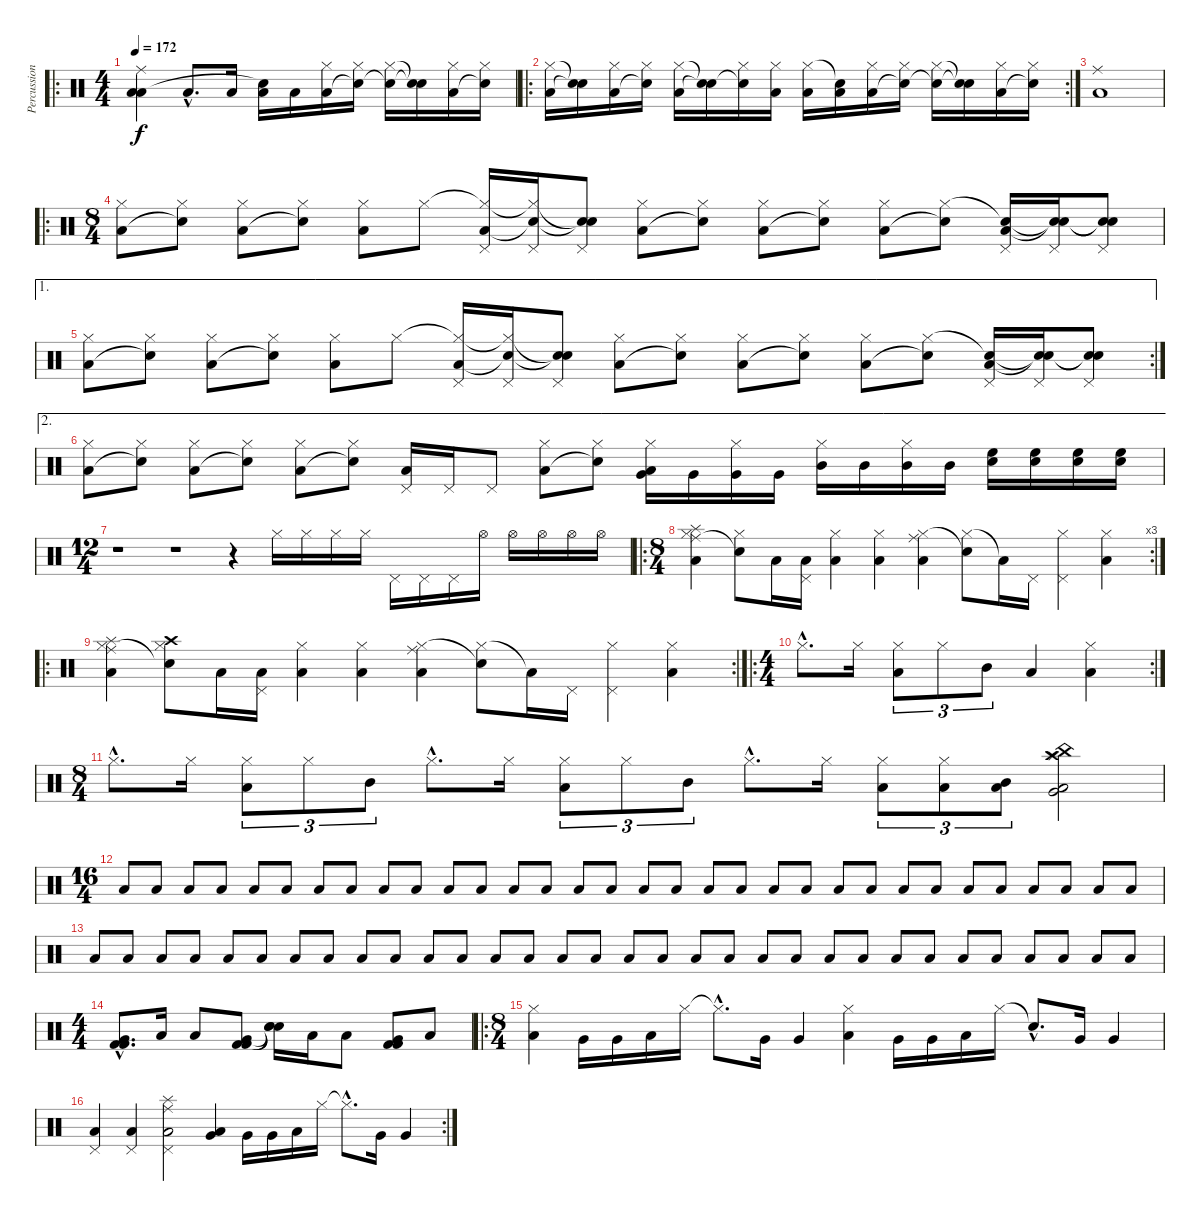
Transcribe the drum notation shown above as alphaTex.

\track ("Percussion" "Percussion") {instrument percussion}
\staff {score}
\articulation defaults
\ro
\ts (4 4)
\tempo 172
\clef neutral
\ks c
("Low Floor Tom (hit)" "Low Tom (hit)" "Ride (middle)").4{dy f} "Low Tom (hit)"{hac}.8{d} "Low Tom (hit)".16 ("Low Tom (hit)" "Snare (hit)"{t}).16 "Low Tom (hit)".16 ("Hi-Hat (closed)" "Low Tom (hit)").16 ("Hi-Hat (closed)" "Snare (hit)"{t}).16 ("Hi-Hat (closed)" "Snare (hit)"{t}).16 ("Snare (hit)"{t} "Snare (hit)"{t}).16 ("Hi-Hat (closed)" "Low Tom (hit)").16 ("Hi-Hat (closed)" "Snare (hit)"{t}).16 |
\ro
\rc 2
("Hi-Hat (closed)" "Low Floor Tom (hit)").16 ("Snare (hit)"{t} "Snare (hit)"{t}).16 ("Hi-Hat (closed)" "Low Tom (hit)").16 ("Hi-Hat (closed)" "Snare (hit)"{t}).16 ("Hi-Hat (closed)" "Low Tom (hit)").16 ("Snare (hit)"{t} "Snare (hit)"{t}).16 ("Hi-Hat (closed)" "Snare (hit)"{t}).16 ("Hi-Hat (closed)" "Low Tom (hit)").16 ("Hi-Hat (closed)" "Low Tom (hit)").16 ("Snare (hit)"{t} "Low Tom (hit)").16 ("Hi-Hat (closed)" "Low Tom (hit)").16 ("Hi-Hat (closed)" "Snare (hit)"{t}).16 ("Hi-Hat (closed)" "Snare (hit)"{t}).16 ("Snare (hit)"{t} "Snare (hit)"{t}).16 ("Hi-Hat (closed)" "Low Tom (hit)").16 ("Hi-Hat (closed)" "Snare (hit)"{t}).16 |
("Ride (middle)" "Low Floor Tom (hit)").1 |
\ro
\ts (8 4)
("Hi-Hat (closed)" "Low Floor Tom (hit)").8 ("Hi-Hat (closed)" "Snare (hit)"{t}).8 ("Hi-Hat (closed)" "Low Floor Tom (hit)").8 ("Hi-Hat (closed)" "Snare (hit)"{t}).8 ("Hi-Hat (closed)" "Low Floor Tom (hit)").8 "Hi-Hat (closed)".8 ("Hi-Hat (closed)"{t} "Pedal Hi-Hat (hit)" "Low Floor Tom (hit)").16 ("Hi-Hat (closed)"{t} "Pedal Hi-Hat (hit)" "Snare (hit)"{t}).16 ("Snare (hit)"{t} "Pedal Hi-Hat (hit)" "Snare (hit)"{t}).8 ("Hi-Hat (closed)" "Low Floor Tom (hit)").8 ("Hi-Hat (closed)" "Snare (hit)"{t}).8 ("Hi-Hat (closed)" "Low Floor Tom (hit)").8 ("Hi-Hat (closed)" "Snare (hit)"{t}).8 ("Hi-Hat (closed)" "Low Floor Tom (hit)").8 ("Hi-Hat (closed)" "Snare (hit)"{t}).8 ("Snare (hit)"{t} "Pedal Hi-Hat (hit)" "Low Floor Tom (hit)").16 ("Snare (hit)"{t} "Pedal Hi-Hat (hit)" "Snare (hit)"{t}).16 ("Snare (hit)"{t} "Pedal Hi-Hat (hit)" "Snare (hit)"{t}).8 |
\ae 1
\rc 2
("Hi-Hat (closed)" "Low Floor Tom (hit)").8 ("Hi-Hat (closed)" "Snare (hit)"{t}).8 ("Hi-Hat (closed)" "Low Floor Tom (hit)").8 ("Hi-Hat (closed)" "Snare (hit)"{t}).8 ("Hi-Hat (closed)" "Low Floor Tom (hit)").8 "Hi-Hat (closed)".8 ("Hi-Hat (closed)"{t} "Pedal Hi-Hat (hit)" "Low Floor Tom (hit)").16 ("Hi-Hat (closed)"{t} "Pedal Hi-Hat (hit)" "Snare (hit)"{t}).16 ("Snare (hit)"{t} "Pedal Hi-Hat (hit)" "Snare (hit)"{t}).8 ("Hi-Hat (closed)" "Low Floor Tom (hit)").8 ("Hi-Hat (closed)" "Snare (hit)"{t}).8 ("Hi-Hat (closed)" "Low Floor Tom (hit)").8 ("Hi-Hat (closed)" "Snare (hit)"{t}).8 ("Hi-Hat (closed)" "Low Floor Tom (hit)").8 ("Hi-Hat (closed)" "Snare (hit)"{t}).8 ("Snare (hit)"{t} "Pedal Hi-Hat (hit)" "Low Floor Tom (hit)").16 ("Snare (hit)"{t} "Pedal Hi-Hat (hit)" "Snare (hit)"{t}).16 ("Snare (hit)"{t} "Pedal Hi-Hat (hit)" "Snare (hit)"{t}).8 |
\ae 2
("Hi-Hat (closed)" "Low Floor Tom (hit)").8 ("Hi-Hat (closed)" "Snare (hit)"{t}).8 ("Hi-Hat (closed)" "Low Floor Tom (hit)").8 ("Hi-Hat (closed)" "Snare (hit)"{t}).8 ("Hi-Hat (closed)" "Low Floor Tom (hit)").8 ("Hi-Hat (closed)" "Snare (hit)"{t}).8 ("Pedal Hi-Hat (hit)" "Low Floor Tom (hit)").16 "Pedal Hi-Hat (hit)".16 "Pedal Hi-Hat (hit)".8 ("Hi-Hat (closed)" "Low Floor Tom (hit)").8 ("Hi-Hat (closed)" "Snare (hit)"{t}).8 ("Hi-Hat (closed)" "Very Low Tom (hit)" "Low Floor Tom (hit)").16 "Very Low Tom (hit)".16 ("Hi-Hat (closed)" "Very Low Tom (hit)").16 "Very Low Tom (hit)".16 ("Hi-Hat (closed)" "Mid Tom (hit)").16 "Mid Tom (hit)".16 ("Hi-Hat (closed)" "Mid Tom (hit)").16 "Mid Tom (hit)".16 ("High Floor Tom (hit)" "Electric Snare (hit)").16 ("High Floor Tom (hit)" "Electric Snare (hit)").16 ("High Floor Tom (hit)" "Electric Snare (hit)").16 ("High Floor Tom (hit)" "Electric Snare (hit)").16 |
\ts (12 4)
r.1 r.1 r.4 "Hi-Hat (closed)".16 "Hi-Hat (closed)".16 "Hi-Hat (closed)".16 "Hi-Hat (closed)".16 "Pedal Hi-Hat (hit)".16 "Pedal Hi-Hat (hit)".16 "Pedal Hi-Hat (hit)".16 "Hi-Hat (open)".16 "Hi-Hat (open)".16 "Hi-Hat (open)".16 "Hi-Hat (open)".16 "Hi-Hat (open)".16 |
\ro
\rc 3
\ts (8 4)
("Splash (hit)" "Ride (middle)" "Hi-Hat (closed)" "Low Floor Tom (hit)").4 ("Hi-Hat (closed)" "Snare (hit)"{t}).8 "Low Floor Tom (hit)".16 ("Pedal Hi-Hat (hit)" "Low Floor Tom (hit)").16 ("Hi-Hat (closed)" "Low Floor Tom (hit)").4 ("Hi-Hat (closed)" "Low Floor Tom (hit)").4 ("Ride (middle)" "Hi-Hat (closed)" "Low Floor Tom (hit)").4 ("Hi-Hat (closed)" "Snare (hit)"{t}).8 "Low Floor Tom (hit)"{t}.16 "Pedal Hi-Hat (hit)".16 ("Hi-Hat (closed)" "Pedal Hi-Hat (hit)").4 ("Hi-Hat (closed)" "Low Floor Tom (hit)").4 |
\ro
\rc 2
("Splash (hit)" "Ride (middle)" "Hi-Hat (closed)" "Low Floor Tom (hit)").4 ("Crash high (hit)" "Hi-Hat (closed)" "Snare (hit)"{t}).8 "Low Floor Tom (hit)".16 ("Pedal Hi-Hat (hit)" "Low Floor Tom (hit)").16 ("Hi-Hat (closed)" "Low Floor Tom (hit)").4 ("Hi-Hat (closed)" "Low Floor Tom (hit)").4 ("Ride (middle)" "Hi-Hat (closed)" "Low Floor Tom (hit)").4 ("Hi-Hat (closed)" "Snare (hit)"{t}).8 "Low Floor Tom (hit)"{t}.16 "Pedal Hi-Hat (hit)".16 ("Hi-Hat (closed)" "Pedal Hi-Hat (hit)").4 ("Hi-Hat (closed)" "Low Floor Tom (hit)").4 |
\ro
\rc 2
\ts (4 4)
"Hi-Hat (closed)"{hac}.8{d} "Hi-Hat (closed)".16 ("Hi-Hat (closed)" "Low Floor Tom (hit)").8{tu (3 2)} "Hi-Hat (closed)".8{tu (3 2)} "Mid Tom (hit)".8{tu (3 2)} "Low Tom (hit)".4 ("Hi-Hat (closed)" "Low Floor Tom (hit)").4 |
\ts (8 4)
"Hi-Hat (closed)"{hac}.8{d} "Hi-Hat (closed)".16 ("Hi-Hat (closed)" "Low Floor Tom (hit)").8{tu (3 2)} "Hi-Hat (closed)".8{tu (3 2)} "Mid Tom (hit)".8{tu (3 2)} "Hi-Hat (closed)"{hac}.8{d} "Hi-Hat (closed)".16 ("Hi-Hat (closed)" "Low Floor Tom (hit)").8{tu (3 2)} "Hi-Hat (closed)".8{tu (3 2)} "Mid Tom (hit)".8{tu (3 2)} "Hi-Hat (closed)"{hac}.8{d} "Hi-Hat (closed)".16 ("Hi-Hat (closed)" "Low Floor Tom (hit)").8{tu (3 2)} ("Hi-Hat (closed)" "Low Floor Tom (hit)").8{tu (3 2)} ("Mid Tom (hit)" "Low Floor Tom (hit)").8{tu (3 2)} ("Crash high (hit)" "China (hit)" "Splash (hit)" "Very Low Tom (hit)" "Low Floor Tom (hit)").2 |
\ts (16 4)
"Low Floor Tom (hit)".8 "Low Tom (hit)".8 "Low Tom (hit)".8 "Low Floor Tom (hit)".8 "Low Tom (hit)".8 "Low Tom (hit)".8 "Low Floor Tom (hit)".8 "Low Tom (hit)".8 "Low Floor Tom (hit)".8 "Low Tom (hit)".8 "Low Tom (hit)".8 "Low Floor Tom (hit)".8 "Low Tom (hit)".8 "Low Tom (hit)".8 "Low Floor Tom (hit)".8 "Low Tom (hit)".8 "Low Floor Tom (hit)".8 "Low Tom (hit)".8 "Low Tom (hit)".8 "Low Floor Tom (hit)".8 "Low Tom (hit)".8 "Low Tom (hit)".8 "Low Floor Tom (hit)".8 "Low Tom (hit)".8 "Low Floor Tom (hit)".8 "Low Tom (hit)".8 "Low Tom (hit)".8 "Low Floor Tom (hit)".8 "Low Tom (hit)".8 "Low Tom (hit)".8 "Low Floor Tom (hit)".8 "Low Tom (hit)".8 |
"Low Floor Tom (hit)".8 "Low Tom (hit)".8 "Low Tom (hit)".8 "Low Floor Tom (hit)".8 "Low Tom (hit)".8 "Low Tom (hit)".8 "Low Floor Tom (hit)".8 "Low Tom (hit)".8 "Low Floor Tom (hit)".8 "Low Tom (hit)".8 "Low Tom (hit)".8 "Low Floor Tom (hit)".8 "Low Tom (hit)".8 "Low Tom (hit)".8 "Low Floor Tom (hit)".8 "Low Tom (hit)".8 "Low Floor Tom (hit)".8 "Low Tom (hit)".8 "Low Tom (hit)".8 "Low Floor Tom (hit)".8 "Low Tom (hit)".8 "Low Tom (hit)".8 "Low Floor Tom (hit)".8 "Low Tom (hit)".8 "Low Floor Tom (hit)".8 "Low Tom (hit)".8 "Low Tom (hit)".8 "Low Floor Tom (hit)".8 "Low Tom (hit)".8 "Low Tom (hit)".8 "Low Floor Tom (hit)".8 "Low Tom (hit)".8 |
\ts (4 4)
("Kick (hit) 2"{hac} "Very Low Tom (hit)"{hac} "Kick (hit) 2"{hac}).8{d} "Low Floor Tom (hit)".16 "Low Floor Tom (hit)".8 ("Kick (hit) 2" "Very Low Tom (hit)" "Kick (hit) 2").8 ("Snare (hit)"{t} "Snare (hit)"{t} "Snare (hit)"{t}).16 "Low Floor Tom (hit)".16 "Low Floor Tom (hit)".8 ("Kick (hit) 2" "Very Low Tom (hit)" "Kick (hit) 2").8 "Low Floor Tom (hit)".8 |
\ro
\ts (8 4)
("Hi-Hat (closed)" "Low Floor Tom (hit)").4 "Very Low Tom (hit)".16 "Very Low Tom (hit)".16 "Low Floor Tom (hit)".16 "Hi-Hat (closed)".16 "Hi-Hat (closed)"{hac t}.8{d} "Very Low Tom (hit)".16 "Very Low Tom (hit)".4 ("Hi-Hat (closed)" "Low Floor Tom (hit)").4 "Very Low Tom (hit)".16 "Very Low Tom (hit)".16 "Low Floor Tom (hit)".16 "Hi-Hat (closed)".16 "Snare (hit)"{hac t}.8{d} "Very Low Tom (hit)".16 "Very Low Tom (hit)".4 |
\rc 2
("Pedal Hi-Hat (hit)" "Low Floor Tom (hit)").4 ("Pedal Hi-Hat (hit)" "Low Floor Tom (hit)").4 ("Splash (hit)" "Ride (middle)" "Pedal Hi-Hat (hit)" "Low Floor Tom (hit)").2 ("Very Low Tom (hit)" "Low Floor Tom (hit)").4 "Very Low Tom (hit)".16 "Very Low Tom (hit)".16 "Low Floor Tom (hit)".16 "Hi-Hat (closed)".16 "Hi-Hat (closed)"{hac t}.8{d} "Very Low Tom (hit)".16 "Very Low Tom (hit)".4
